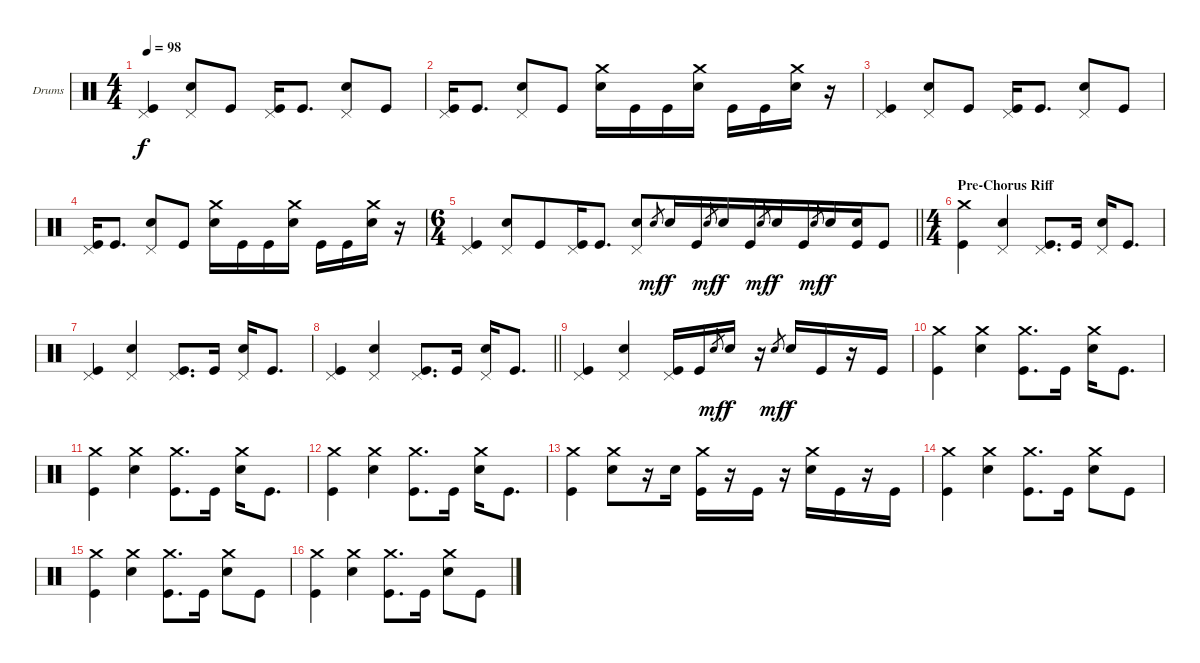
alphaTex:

\bracketExtendMode groupsimilarinstruments
\firstSystemTrackNameOrientation horizontal
\otherSystemsTrackNameOrientation horizontal
\track ("Drumkit" "Drums") {instrument percussion}
\staff {score}
\articulation defaults
\ts (4 4)
\tempo 98
\clef neutral
\ks c
("Pedal Hi-Hat (hit)" "Kick (hit)").4{dy f} ("Pedal Hi-Hat (hit)" "Snare (hit) 2").8 "Kick (hit)".8 ("Pedal Hi-Hat (hit)" "Kick (hit)").16 "Kick (hit)".8{d} ("Pedal Hi-Hat (hit)" "Snare (hit) 2").8 "Kick (hit)".8 |
("Pedal Hi-Hat (hit)" "Kick (hit)").16 "Kick (hit)".8{d} ("Pedal Hi-Hat (hit)" "Snare (hit) 2").8 "Kick (hit)".8 ("Crash medium (hit)" "Snare (hit) 2").16 "Kick (hit)".16 "Kick (hit)".16 ("Crash medium (hit)" "Snare (hit) 2").16 "Kick (hit)".16 "Kick (hit)".16 ("Crash medium (hit)" "Snare (hit) 2").16 r.16 |
("Pedal Hi-Hat (hit)" "Kick (hit)").4 ("Pedal Hi-Hat (hit)" "Snare (hit) 2").8 "Kick (hit)".8 ("Pedal Hi-Hat (hit)" "Kick (hit)").16 "Kick (hit)".8{d} ("Pedal Hi-Hat (hit)" "Snare (hit) 2").8 "Kick (hit)".8 |
("Pedal Hi-Hat (hit)" "Kick (hit)").16 "Kick (hit)".8{d} ("Pedal Hi-Hat (hit)" "Snare (hit) 2").8 "Kick (hit)".8 ("Crash medium (hit)" "Snare (hit) 2").16 "Kick (hit)".16 "Kick (hit)".16 ("Crash medium (hit)" "Snare (hit) 2").16 "Kick (hit)".16 "Kick (hit)".16 ("Crash medium (hit)" "Snare (hit) 2").16 r.16 |
\ts (6 4)
\beaming (8 6 6)
\barLineRight lightlight
("Pedal Hi-Hat (hit)" "Kick (hit)").4 ("Pedal Hi-Hat (hit)" "Snare (hit) 2").8 "Kick (hit)".8 ("Pedal Hi-Hat (hit)" "Kick (hit)").16 "Kick (hit)".8{d} ("Pedal Hi-Hat (hit)" "Snare (hit) 2").8 "Snare (hit) 2".8{gr dy mf} "Snare (hit) 2".16{dy f} "Kick (hit)".16 "Snare (hit) 2".8{gr dy mf} "Snare (hit) 2".16{dy f} "Kick (hit)".16 "Snare (hit) 2".8{gr dy mf} "Snare (hit) 2".16{dy f} "Kick (hit)".16 "Snare (hit) 2".8{gr dy mf} "Snare (hit) 2".16{dy f} ("Snare (hit) 2" "Kick (hit)").16 "Kick (hit)".8 |
\ts (4 4)
\beaming (8 6 6)
\section ("" "Pre-Chorus Riff")
("Crash medium (hit)" "Kick (hit)").4 ("Pedal Hi-Hat (hit)" "Snare (hit) 2").4 ("Pedal Hi-Hat (hit)" "Kick (hit)").8{d} "Kick (hit)".16 ("Pedal Hi-Hat (hit)" "Snare (hit) 2").16 "Kick (hit)".8{d} |
("Pedal Hi-Hat (hit)" "Kick (hit)").4 ("Pedal Hi-Hat (hit)" "Snare (hit) 2").4 ("Pedal Hi-Hat (hit)" "Kick (hit)").8{d} "Kick (hit)".16 ("Pedal Hi-Hat (hit)" "Snare (hit) 2").16 "Kick (hit)".8{d} |
\barLineRight lightlight
("Pedal Hi-Hat (hit)" "Kick (hit)").4 ("Pedal Hi-Hat (hit)" "Snare (hit) 2").4 ("Pedal Hi-Hat (hit)" "Kick (hit)").8{d} "Kick (hit)".16 ("Pedal Hi-Hat (hit)" "Snare (hit) 2").16 "Kick (hit)".8{d} |
\beaming (8 2 2 2 2)
\section ("" "")
("Pedal Hi-Hat (hit)" "Kick (hit)").4 ("Pedal Hi-Hat (hit)" "Snare (hit) 2").4 ("Pedal Hi-Hat (hit)" "Kick (hit)").16 "Kick (hit)".16 "Snare (hit) 2".8{gr dy mf} "Snare (hit) 2".16{dy f} r.16 "Snare (hit) 2".8{gr dy mf} "Snare (hit) 2".16{dy f} "Kick (hit)".16 r.16 "Kick (hit)".16 |
("Crash medium (hit)" "Kick (hit)").4 ("Crash medium (hit)" "Snare (hit) 2").4 ("Crash medium (hit)" "Kick (hit)").8{d} "Kick (hit)".16 ("Crash medium (hit)" "Snare (hit) 2").16 "Kick (hit)".8{d} |
("Crash medium (hit)" "Kick (hit)").4 ("Crash medium (hit)" "Snare (hit) 2").4 ("Crash medium (hit)" "Kick (hit)").8{d} "Kick (hit)".16 ("Crash medium (hit)" "Snare (hit) 2").16 "Kick (hit)".8{d} |
("Crash medium (hit)" "Kick (hit)").4 ("Crash medium (hit)" "Snare (hit) 2").4 ("Crash medium (hit)" "Kick (hit)").8{d} "Kick (hit)".16 ("Crash medium (hit)" "Snare (hit) 2").16 "Kick (hit)".8{d} |
("Crash medium (hit)" "Kick (hit)").4 ("Crash medium (hit)" "Snare (hit) 2").8 r.16 "Snare (hit) 2".16 ("Crash medium (hit)" "Kick (hit)").16 r.16 "Kick (hit)".16 r.16 ("Crash medium (hit)" "Snare (hit) 2").16 "Kick (hit)".16 r.16 "Kick (hit)".16 |
("Crash medium (hit)" "Kick (hit)").4 ("Crash medium (hit)" "Snare (hit) 2").4 ("Crash medium (hit)" "Kick (hit)").8{d} "Kick (hit)".16 ("Crash medium (hit)" "Snare (hit) 2").8 "Kick (hit)".8 |
("Crash medium (hit)" "Kick (hit)").4 ("Crash medium (hit)" "Snare (hit) 2").4 ("Crash medium (hit)" "Kick (hit)").8{d} "Kick (hit)".16 ("Crash medium (hit)" "Snare (hit) 2").8 "Kick (hit)".8 |
("Crash medium (hit)" "Kick (hit)").4 ("Crash medium (hit)" "Snare (hit) 2").4 ("Crash medium (hit)" "Kick (hit)").8{d} "Kick (hit)".16 ("Crash medium (hit)" "Snare (hit) 2").8 "Kick (hit)".8
